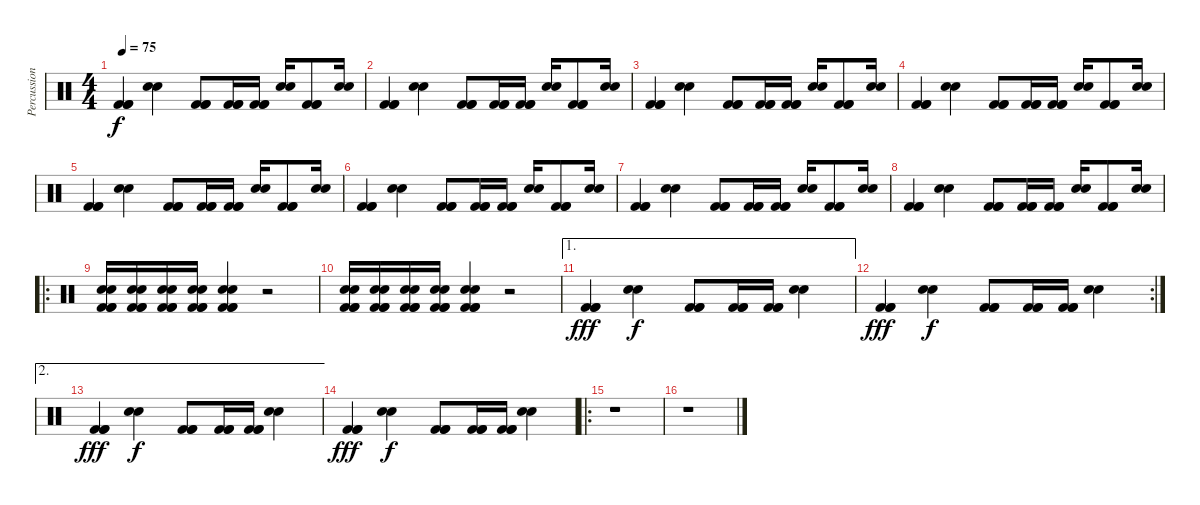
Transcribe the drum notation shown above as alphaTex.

\track ("Percussions" "Percussion") {instrument percussion}
\staff {score}
\articulation defaults
\ts (4 4)
\tempo 75
\clef neutral
\ks c
("Kick (hit) 2" "Kick (hit) 2" "Kick (hit) 2").4{dy f} ("Snare (hit) 2" "Snare (hit) 2").4 ("Kick (hit) 2" "Kick (hit) 2" "Kick (hit) 2").8 ("Kick (hit) 2" "Kick (hit) 2" "Kick (hit) 2").16 ("Kick (hit) 2" "Kick (hit) 2" "Kick (hit) 2").16 ("Snare (hit) 2" "Snare (hit) 2").16 ("Kick (hit) 2" "Kick (hit) 2" "Kick (hit) 2").8 ("Snare (hit) 2" "Snare (hit) 2").16 |
("Kick (hit) 2" "Kick (hit) 2" "Kick (hit) 2").4 ("Snare (hit) 2" "Snare (hit) 2").4 ("Kick (hit) 2" "Kick (hit) 2" "Kick (hit) 2").8 ("Kick (hit) 2" "Kick (hit) 2" "Kick (hit) 2").16 ("Kick (hit) 2" "Kick (hit) 2" "Kick (hit) 2").16 ("Snare (hit) 2" "Snare (hit) 2").16 ("Kick (hit) 2" "Kick (hit) 2" "Kick (hit) 2").8 ("Snare (hit) 2" "Snare (hit) 2").16 |
("Kick (hit) 2" "Kick (hit) 2" "Kick (hit) 2").4 ("Snare (hit) 2" "Snare (hit) 2").4 ("Kick (hit) 2" "Kick (hit) 2" "Kick (hit) 2").8 ("Kick (hit) 2" "Kick (hit) 2" "Kick (hit) 2").16 ("Kick (hit) 2" "Kick (hit) 2" "Kick (hit) 2").16 ("Snare (hit) 2" "Snare (hit) 2").16 ("Kick (hit) 2" "Kick (hit) 2" "Kick (hit) 2").8 ("Snare (hit) 2" "Snare (hit) 2").16 |
("Kick (hit) 2" "Kick (hit) 2" "Kick (hit) 2").4 ("Snare (hit) 2" "Snare (hit) 2").4 ("Kick (hit) 2" "Kick (hit) 2" "Kick (hit) 2").8 ("Kick (hit) 2" "Kick (hit) 2" "Kick (hit) 2").16 ("Kick (hit) 2" "Kick (hit) 2" "Kick (hit) 2").16 ("Snare (hit) 2" "Snare (hit) 2").16 ("Kick (hit) 2" "Kick (hit) 2" "Kick (hit) 2").8 ("Snare (hit) 2" "Snare (hit) 2").16 |
("Kick (hit) 2" "Kick (hit) 2" "Kick (hit) 2").4 ("Snare (hit) 2" "Snare (hit) 2").4 ("Kick (hit) 2" "Kick (hit) 2" "Kick (hit) 2").8 ("Kick (hit) 2" "Kick (hit) 2" "Kick (hit) 2").16 ("Kick (hit) 2" "Kick (hit) 2" "Kick (hit) 2").16 ("Snare (hit) 2" "Snare (hit) 2").16 ("Kick (hit) 2" "Kick (hit) 2" "Kick (hit) 2").8 ("Snare (hit) 2" "Snare (hit) 2").16 |
("Kick (hit) 2" "Kick (hit) 2" "Kick (hit) 2").4 ("Snare (hit) 2" "Snare (hit) 2").4 ("Kick (hit) 2" "Kick (hit) 2" "Kick (hit) 2").8 ("Kick (hit) 2" "Kick (hit) 2" "Kick (hit) 2").16 ("Kick (hit) 2" "Kick (hit) 2" "Kick (hit) 2").16 ("Snare (hit) 2" "Snare (hit) 2").16 ("Kick (hit) 2" "Kick (hit) 2" "Kick (hit) 2").8 ("Snare (hit) 2" "Snare (hit) 2").16 |
("Kick (hit) 2" "Kick (hit) 2" "Kick (hit) 2").4 ("Snare (hit) 2" "Snare (hit) 2").4 ("Kick (hit) 2" "Kick (hit) 2" "Kick (hit) 2").8 ("Kick (hit) 2" "Kick (hit) 2" "Kick (hit) 2").16 ("Kick (hit) 2" "Kick (hit) 2" "Kick (hit) 2").16 ("Snare (hit) 2" "Snare (hit) 2").16 ("Kick (hit) 2" "Kick (hit) 2" "Kick (hit) 2").8 ("Snare (hit) 2" "Snare (hit) 2").16 |
("Kick (hit) 2" "Kick (hit) 2" "Kick (hit) 2").4 ("Snare (hit) 2" "Snare (hit) 2").4 ("Kick (hit) 2" "Kick (hit) 2" "Kick (hit) 2").8 ("Kick (hit) 2" "Kick (hit) 2" "Kick (hit) 2").16 ("Kick (hit) 2" "Kick (hit) 2" "Kick (hit) 2").16 ("Snare (hit) 2" "Snare (hit) 2").16 ("Kick (hit) 2" "Kick (hit) 2" "Kick (hit) 2").8 ("Snare (hit) 2" "Snare (hit) 2").16 |
\ro
("Kick (hit) 2" "Kick (hit) 2" "Kick (hit) 2" "Snare (hit) 2" "Snare (hit) 2").16 ("Kick (hit) 2" "Kick (hit) 2" "Kick (hit) 2" "Snare (hit) 2" "Snare (hit) 2").16 ("Kick (hit) 2" "Kick (hit) 2" "Kick (hit) 2" "Snare (hit) 2" "Snare (hit) 2").16 ("Kick (hit) 2" "Kick (hit) 2" "Kick (hit) 2" "Snare (hit) 2" "Snare (hit) 2").16 ("Kick (hit) 2" "Kick (hit) 2" "Kick (hit) 2" "Snare (hit) 2" "Snare (hit) 2").4 r.2 |
("Snare (hit) 2" "Snare (hit) 2" "Kick (hit) 2" "Kick (hit) 2" "Kick (hit) 2").16 ("Snare (hit) 2" "Snare (hit) 2" "Kick (hit) 2" "Kick (hit) 2" "Kick (hit) 2").16 ("Snare (hit) 2" "Snare (hit) 2" "Kick (hit) 2" "Kick (hit) 2" "Kick (hit) 2").16 ("Snare (hit) 2" "Snare (hit) 2" "Kick (hit) 2" "Kick (hit) 2" "Kick (hit) 2").16 ("Snare (hit) 2" "Snare (hit) 2" "Kick (hit) 2" "Kick (hit) 2" "Kick (hit) 2").4 r.2 |
\ae 1
("Kick (hit) 2" "Kick (hit) 2" "Kick (hit) 2").4{dy fff} ("Snare (hit) 2" "Snare (hit) 2").4{dy f} ("Kick (hit) 2" "Kick (hit) 2" "Kick (hit) 2").8 ("Kick (hit) 2" "Kick (hit) 2" "Kick (hit) 2").16 ("Kick (hit) 2" "Kick (hit) 2" "Kick (hit) 2").16 ("Snare (hit) 2" "Snare (hit) 2").4 |
\rc 2
("Kick (hit) 2" "Kick (hit) 2" "Kick (hit) 2").4{dy fff} ("Snare (hit) 2" "Snare (hit) 2").4{dy f} ("Kick (hit) 2" "Kick (hit) 2" "Kick (hit) 2").8 ("Kick (hit) 2" "Kick (hit) 2" "Kick (hit) 2").16 ("Kick (hit) 2" "Kick (hit) 2" "Kick (hit) 2").16 ("Snare (hit) 2" "Snare (hit) 2").4 |
\ae 2
("Kick (hit) 2" "Kick (hit) 2" "Kick (hit) 2").4{dy fff} ("Snare (hit) 2" "Snare (hit) 2").4{dy f} ("Kick (hit) 2" "Kick (hit) 2" "Kick (hit) 2").8 ("Kick (hit) 2" "Kick (hit) 2" "Kick (hit) 2").16 ("Kick (hit) 2" "Kick (hit) 2" "Kick (hit) 2").16 ("Snare (hit) 2" "Snare (hit) 2").4 |
("Kick (hit) 2" "Kick (hit) 2" "Kick (hit) 2").4{dy fff} ("Snare (hit) 2" "Snare (hit) 2").4{dy f} ("Kick (hit) 2" "Kick (hit) 2" "Kick (hit) 2").8 ("Kick (hit) 2" "Kick (hit) 2" "Kick (hit) 2").16 ("Kick (hit) 2" "Kick (hit) 2" "Kick (hit) 2").16 ("Snare (hit) 2" "Snare (hit) 2").4 |
\ro
r.1 |
r.1
